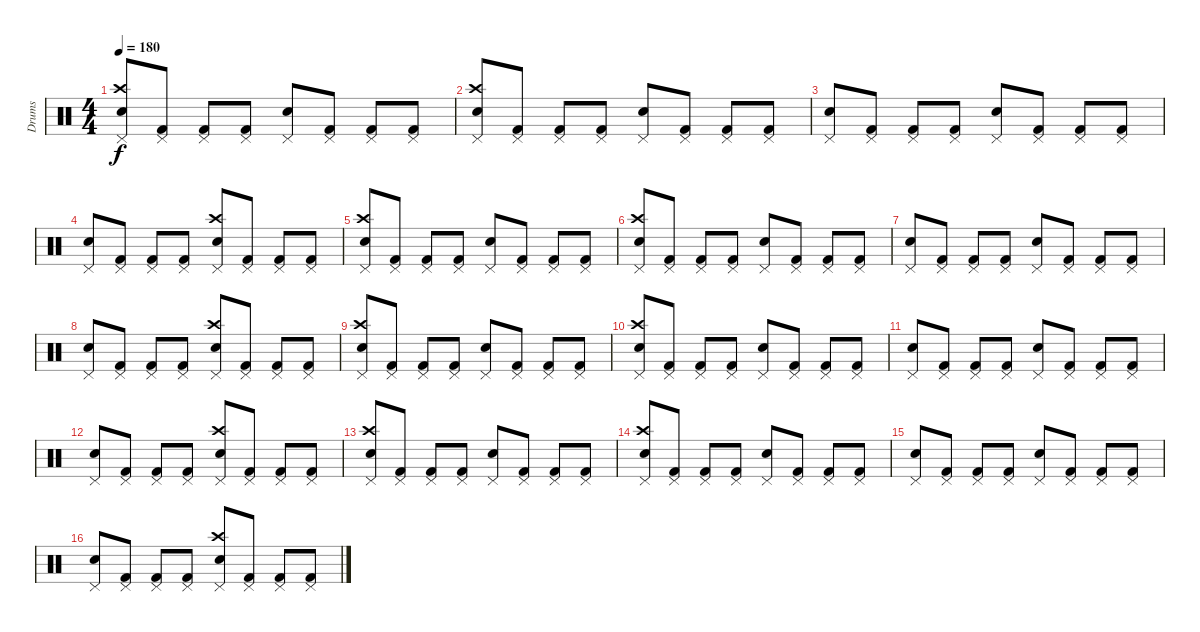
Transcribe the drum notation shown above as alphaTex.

\track ("Drums" "Drums") {instrument percussion}
\staff {score}
\articulation defaults
\ts (4 4)
\tempo 180
\clef neutral
\ks c
("Pedal Hi-Hat (hit)" "Crash high (hit)" "Snare (hit) 2").8{dy f} ("Pedal Hi-Hat (hit)" "Kick (hit) 2").8 ("Pedal Hi-Hat (hit)" "Kick (hit) 2").8 ("Pedal Hi-Hat (hit)" "Kick (hit) 2").8 ("Pedal Hi-Hat (hit)" "Snare (hit) 2").8 ("Pedal Hi-Hat (hit)" "Kick (hit) 2").8 ("Pedal Hi-Hat (hit)" "Kick (hit) 2").8 ("Pedal Hi-Hat (hit)" "Kick (hit) 2").8 |
("Pedal Hi-Hat (hit)" "Crash high (hit)" "Snare (hit) 2").8 ("Pedal Hi-Hat (hit)" "Kick (hit) 2").8 ("Pedal Hi-Hat (hit)" "Kick (hit) 2").8 ("Pedal Hi-Hat (hit)" "Kick (hit) 2").8 ("Pedal Hi-Hat (hit)" "Snare (hit) 2").8 ("Pedal Hi-Hat (hit)" "Kick (hit) 2").8 ("Pedal Hi-Hat (hit)" "Kick (hit) 2").8 ("Pedal Hi-Hat (hit)" "Kick (hit) 2").8 |
("Pedal Hi-Hat (hit)" "Snare (hit) 2").8 ("Pedal Hi-Hat (hit)" "Kick (hit) 2").8 ("Pedal Hi-Hat (hit)" "Kick (hit) 2").8 ("Pedal Hi-Hat (hit)" "Kick (hit) 2").8 ("Pedal Hi-Hat (hit)" "Snare (hit) 2").8 ("Pedal Hi-Hat (hit)" "Kick (hit) 2").8 ("Pedal Hi-Hat (hit)" "Kick (hit) 2").8 ("Pedal Hi-Hat (hit)" "Kick (hit) 2").8 |
("Pedal Hi-Hat (hit)" "Snare (hit) 2").8 ("Pedal Hi-Hat (hit)" "Kick (hit) 2").8 ("Pedal Hi-Hat (hit)" "Kick (hit) 2").8 ("Pedal Hi-Hat (hit)" "Kick (hit) 2").8 ("Pedal Hi-Hat (hit)" "Crash high (hit)" "Snare (hit) 2").8 ("Pedal Hi-Hat (hit)" "Kick (hit) 2").8 ("Pedal Hi-Hat (hit)" "Kick (hit) 2").8 ("Pedal Hi-Hat (hit)" "Kick (hit) 2").8 |
("Pedal Hi-Hat (hit)" "Crash high (hit)" "Snare (hit) 2").8 ("Pedal Hi-Hat (hit)" "Kick (hit) 2").8 ("Pedal Hi-Hat (hit)" "Kick (hit) 2").8 ("Pedal Hi-Hat (hit)" "Kick (hit) 2").8 ("Pedal Hi-Hat (hit)" "Snare (hit) 2").8 ("Pedal Hi-Hat (hit)" "Kick (hit) 2").8 ("Pedal Hi-Hat (hit)" "Kick (hit) 2").8 ("Pedal Hi-Hat (hit)" "Kick (hit) 2").8 |
("Pedal Hi-Hat (hit)" "Crash high (hit)" "Snare (hit) 2").8 ("Pedal Hi-Hat (hit)" "Kick (hit) 2").8 ("Pedal Hi-Hat (hit)" "Kick (hit) 2").8 ("Pedal Hi-Hat (hit)" "Kick (hit) 2").8 ("Pedal Hi-Hat (hit)" "Snare (hit) 2").8 ("Pedal Hi-Hat (hit)" "Kick (hit) 2").8 ("Pedal Hi-Hat (hit)" "Kick (hit) 2").8 ("Pedal Hi-Hat (hit)" "Kick (hit) 2").8 |
("Pedal Hi-Hat (hit)" "Snare (hit) 2").8 ("Pedal Hi-Hat (hit)" "Kick (hit) 2").8 ("Pedal Hi-Hat (hit)" "Kick (hit) 2").8 ("Pedal Hi-Hat (hit)" "Kick (hit) 2").8 ("Pedal Hi-Hat (hit)" "Snare (hit) 2").8 ("Pedal Hi-Hat (hit)" "Kick (hit) 2").8 ("Pedal Hi-Hat (hit)" "Kick (hit) 2").8 ("Pedal Hi-Hat (hit)" "Kick (hit) 2").8 |
("Pedal Hi-Hat (hit)" "Snare (hit) 2").8 ("Pedal Hi-Hat (hit)" "Kick (hit) 2").8 ("Pedal Hi-Hat (hit)" "Kick (hit) 2").8 ("Pedal Hi-Hat (hit)" "Kick (hit) 2").8 ("Pedal Hi-Hat (hit)" "Crash high (hit)" "Snare (hit) 2").8 ("Pedal Hi-Hat (hit)" "Kick (hit) 2").8 ("Pedal Hi-Hat (hit)" "Kick (hit) 2").8 ("Pedal Hi-Hat (hit)" "Kick (hit) 2").8 |
("Pedal Hi-Hat (hit)" "Crash high (hit)" "Snare (hit) 2").8 ("Pedal Hi-Hat (hit)" "Kick (hit) 2").8 ("Pedal Hi-Hat (hit)" "Kick (hit) 2").8 ("Pedal Hi-Hat (hit)" "Kick (hit) 2").8 ("Pedal Hi-Hat (hit)" "Snare (hit) 2").8 ("Pedal Hi-Hat (hit)" "Kick (hit) 2").8 ("Pedal Hi-Hat (hit)" "Kick (hit) 2").8 ("Pedal Hi-Hat (hit)" "Kick (hit) 2").8 |
("Pedal Hi-Hat (hit)" "Crash high (hit)" "Snare (hit) 2").8 ("Pedal Hi-Hat (hit)" "Kick (hit) 2").8 ("Pedal Hi-Hat (hit)" "Kick (hit) 2").8 ("Pedal Hi-Hat (hit)" "Kick (hit) 2").8 ("Pedal Hi-Hat (hit)" "Snare (hit) 2").8 ("Pedal Hi-Hat (hit)" "Kick (hit) 2").8 ("Pedal Hi-Hat (hit)" "Kick (hit) 2").8 ("Pedal Hi-Hat (hit)" "Kick (hit) 2").8 |
("Pedal Hi-Hat (hit)" "Snare (hit) 2").8 ("Pedal Hi-Hat (hit)" "Kick (hit) 2").8 ("Pedal Hi-Hat (hit)" "Kick (hit) 2").8 ("Pedal Hi-Hat (hit)" "Kick (hit) 2").8 ("Pedal Hi-Hat (hit)" "Snare (hit) 2").8 ("Pedal Hi-Hat (hit)" "Kick (hit) 2").8 ("Pedal Hi-Hat (hit)" "Kick (hit) 2").8 ("Pedal Hi-Hat (hit)" "Kick (hit) 2").8 |
("Pedal Hi-Hat (hit)" "Snare (hit) 2").8 ("Pedal Hi-Hat (hit)" "Kick (hit) 2").8 ("Pedal Hi-Hat (hit)" "Kick (hit) 2").8 ("Pedal Hi-Hat (hit)" "Kick (hit) 2").8 ("Pedal Hi-Hat (hit)" "Crash high (hit)" "Snare (hit) 2").8 ("Pedal Hi-Hat (hit)" "Kick (hit) 2").8 ("Pedal Hi-Hat (hit)" "Kick (hit) 2").8 ("Pedal Hi-Hat (hit)" "Kick (hit) 2").8 |
("Pedal Hi-Hat (hit)" "Crash high (hit)" "Snare (hit) 2").8 ("Pedal Hi-Hat (hit)" "Kick (hit) 2").8 ("Pedal Hi-Hat (hit)" "Kick (hit) 2").8 ("Pedal Hi-Hat (hit)" "Kick (hit) 2").8 ("Pedal Hi-Hat (hit)" "Snare (hit) 2").8 ("Pedal Hi-Hat (hit)" "Kick (hit) 2").8 ("Pedal Hi-Hat (hit)" "Kick (hit) 2").8 ("Pedal Hi-Hat (hit)" "Kick (hit) 2").8 |
("Pedal Hi-Hat (hit)" "Crash high (hit)" "Snare (hit) 2").8 ("Pedal Hi-Hat (hit)" "Kick (hit) 2").8 ("Pedal Hi-Hat (hit)" "Kick (hit) 2").8 ("Pedal Hi-Hat (hit)" "Kick (hit) 2").8 ("Pedal Hi-Hat (hit)" "Snare (hit) 2").8 ("Pedal Hi-Hat (hit)" "Kick (hit) 2").8 ("Pedal Hi-Hat (hit)" "Kick (hit) 2").8 ("Pedal Hi-Hat (hit)" "Kick (hit) 2").8 |
("Pedal Hi-Hat (hit)" "Snare (hit) 2").8 ("Pedal Hi-Hat (hit)" "Kick (hit) 2").8 ("Pedal Hi-Hat (hit)" "Kick (hit) 2").8 ("Pedal Hi-Hat (hit)" "Kick (hit) 2").8 ("Pedal Hi-Hat (hit)" "Snare (hit) 2").8 ("Pedal Hi-Hat (hit)" "Kick (hit) 2").8 ("Pedal Hi-Hat (hit)" "Kick (hit) 2").8 ("Pedal Hi-Hat (hit)" "Kick (hit) 2").8 |
("Pedal Hi-Hat (hit)" "Snare (hit) 2").8 ("Pedal Hi-Hat (hit)" "Kick (hit) 2").8 ("Pedal Hi-Hat (hit)" "Kick (hit) 2").8 ("Pedal Hi-Hat (hit)" "Kick (hit) 2").8 ("Pedal Hi-Hat (hit)" "Crash high (hit)" "Snare (hit) 2").8 ("Pedal Hi-Hat (hit)" "Kick (hit) 2").8 ("Pedal Hi-Hat (hit)" "Kick (hit) 2").8 ("Pedal Hi-Hat (hit)" "Kick (hit) 2").8
